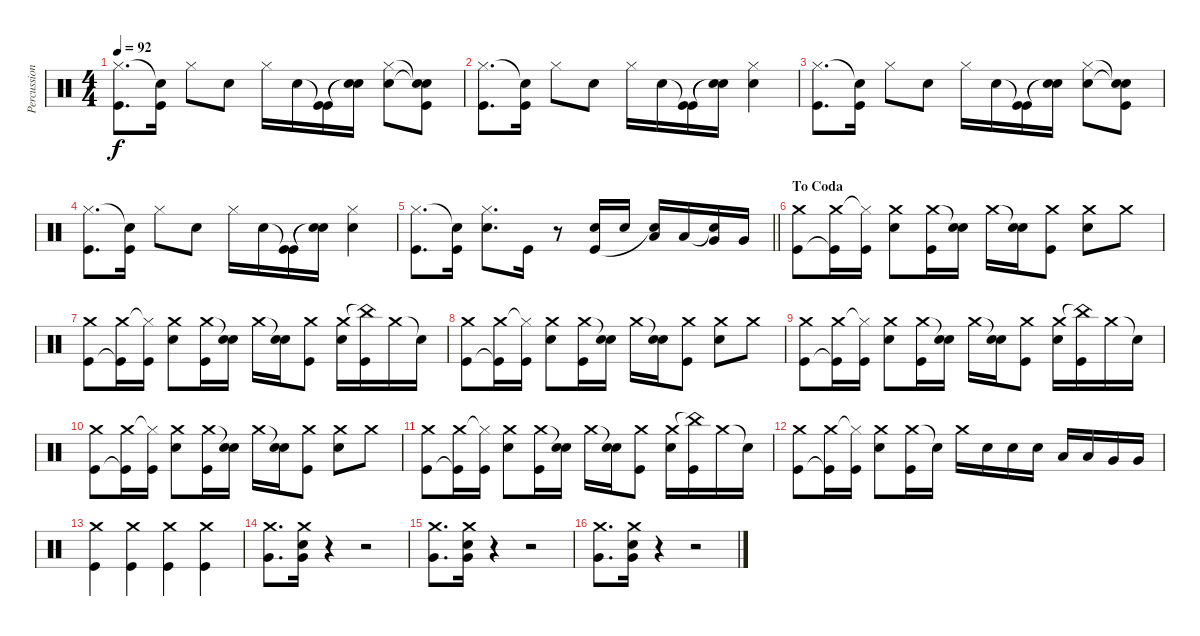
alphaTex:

\track ("Percussion" "Percussion") {instrument percussion}
\staff {score}
\articulation defaults
\ts (4 4)
\tempo 92
\clef neutral
\ks c
("Hi-Hat (closed)" "Kick (hit)").8{d dy f} ("Snare (hit)"{t} "Kick (hit)").16 "Hi-Hat (closed)".8 "Electric Snare (hit)".8 "Hi-Hat (closed)".16 "Electric Snare (hit)".16 ("Kick (hit)"{t} "Kick (hit)").16 ("Snare (hit)"{t} "Snare (hit)"{t}).16 ("Hi-Hat (closed)" "Electric Snare (hit)").8 ("Snare (hit)"{t} "Snare (hit)"{t} "Kick (hit)").8 |
("Hi-Hat (closed)" "Kick (hit)").8{d} ("Snare (hit)"{t} "Kick (hit)").16 "Hi-Hat (closed)".8 "Electric Snare (hit)".8 "Hi-Hat (closed)".16 "Electric Snare (hit)".16 ("Kick (hit)"{t} "Kick (hit)").16 ("Snare (hit)"{t} "Snare (hit)"{t}).16 ("Hi-Hat (closed)" "Electric Snare (hit)").4 |
("Hi-Hat (closed)" "Kick (hit)").8{d} ("Snare (hit)"{t} "Kick (hit)").16 "Hi-Hat (closed)".8 "Electric Snare (hit)".8 "Hi-Hat (closed)".16 "Electric Snare (hit)".16 ("Kick (hit)"{t} "Kick (hit)").16 ("Snare (hit)"{t} "Snare (hit)"{t}).16 ("Hi-Hat (closed)" "Electric Snare (hit)").8 ("Snare (hit)"{t} "Snare (hit)"{t} "Kick (hit)").8 |
("Hi-Hat (closed)" "Kick (hit)").8{d} ("Snare (hit)"{t} "Kick (hit)").16 "Hi-Hat (closed)".8 "Electric Snare (hit)".8 "Hi-Hat (closed)".16 "Electric Snare (hit)".16 ("Kick (hit)"{t} "Kick (hit)").16 ("Snare (hit)"{t} "Snare (hit)"{t}).16 ("Hi-Hat (closed)" "Electric Snare (hit)").4 |
\barLineRight lightlight
("Hi-Hat (closed)" "Kick (hit)").8{d} ("Snare (hit)"{t} "Kick (hit)").16 ("Hi-Hat (closed)" "Electric Snare (hit)").8{d} "Kick (hit)".16 r.8 ("Electric Snare (hit)" "Kick (hit)").16 "Electric Snare (hit)".16 ("Low Tom (hit)" "Snare (hit)"{t}).16 "Low Tom (hit)".16 ("Snare (hit)"{t} "Very Low Tom (hit)").16 "Very Low Tom (hit)".16 |
\section ("" "To Coda")
("Crash medium (hit)" "Kick (hit)").8 ("Crash medium (hit)" "Kick (hit)"{t}).16 ("Hi-Hat (closed)"{t} "Kick (hit)").16 ("Crash medium (hit)" "Electric Snare (hit)").8 ("Crash medium (hit)" "Kick (hit)").16 ("Snare (hit)"{t} "Electric Snare (hit)").16 "Crash medium (hit)".16 ("Snare (hit)"{t} "Electric Snare (hit)").16 ("Crash medium (hit)" "Kick (hit)").8 ("Crash medium (hit)" "Electric Snare (hit)").8 "Crash medium (hit)".8 |
("Crash medium (hit)" "Kick (hit)").8 ("Crash medium (hit)" "Kick (hit)"{t}).16 ("Hi-Hat (closed)"{t} "Kick (hit)").16 ("Crash medium (hit)" "Electric Snare (hit)").8 ("Crash medium (hit)" "Kick (hit)").16 ("Snare (hit)"{t} "Electric Snare (hit)").16 "Crash medium (hit)".16 ("Snare (hit)"{t} "Electric Snare (hit)").16 ("Crash medium (hit)" "Kick (hit)").8 ("Crash medium (hit)" "Electric Snare (hit)").16 ("China (hit)"{t} "Kick (hit)").16 "Crash medium (hit)".16 "Snare (hit)"{t}.16 |
("Crash medium (hit)" "Kick (hit)").8 ("Crash medium (hit)" "Kick (hit)"{t}).16 ("Hi-Hat (closed)"{t} "Kick (hit)").16 ("Crash medium (hit)" "Electric Snare (hit)").8 ("Crash medium (hit)" "Kick (hit)").16 ("Snare (hit)"{t} "Electric Snare (hit)").16 "Crash medium (hit)".16 ("Snare (hit)"{t} "Electric Snare (hit)").16 ("Crash medium (hit)" "Kick (hit)").8 ("Crash medium (hit)" "Electric Snare (hit)").8 "Crash medium (hit)".8 |
("Crash medium (hit)" "Kick (hit)").8 ("Crash medium (hit)" "Kick (hit)"{t}).16 ("Hi-Hat (closed)"{t} "Kick (hit)").16 ("Crash medium (hit)" "Electric Snare (hit)").8 ("Crash medium (hit)" "Kick (hit)").16 ("Snare (hit)"{t} "Electric Snare (hit)").16 "Crash medium (hit)".16 ("Snare (hit)"{t} "Electric Snare (hit)").16 ("Crash medium (hit)" "Kick (hit)").8 ("Crash medium (hit)" "Electric Snare (hit)").16 ("China (hit)"{t} "Kick (hit)").16 "Crash medium (hit)".16 "Snare (hit)"{t}.16 |
("Crash medium (hit)" "Kick (hit)").8 ("Crash medium (hit)" "Kick (hit)"{t}).16 ("Hi-Hat (closed)"{t} "Kick (hit)").16 ("Crash medium (hit)" "Electric Snare (hit)").8 ("Crash medium (hit)" "Kick (hit)").16 ("Snare (hit)"{t} "Electric Snare (hit)").16 "Crash medium (hit)".16 ("Snare (hit)"{t} "Electric Snare (hit)").16 ("Crash medium (hit)" "Kick (hit)").8 ("Crash medium (hit)" "Electric Snare (hit)").8 "Crash medium (hit)".8 |
("Crash medium (hit)" "Kick (hit)").8 ("Crash medium (hit)" "Kick (hit)"{t}).16 ("Hi-Hat (closed)"{t} "Kick (hit)").16 ("Crash medium (hit)" "Electric Snare (hit)").8 ("Crash medium (hit)" "Kick (hit)").16 ("Snare (hit)"{t} "Electric Snare (hit)").16 "Crash medium (hit)".16 ("Snare (hit)"{t} "Electric Snare (hit)").16 ("Crash medium (hit)" "Kick (hit)").8 ("Crash medium (hit)" "Electric Snare (hit)").16 ("China (hit)"{t} "Kick (hit)").16 "Crash medium (hit)".16 "Snare (hit)"{t}.16 |
("Crash medium (hit)" "Kick (hit)").8 ("Crash medium (hit)" "Kick (hit)"{t}).16 ("Hi-Hat (closed)"{t} "Kick (hit)").16 ("Crash medium (hit)" "Electric Snare (hit)").8 ("Crash medium (hit)" "Kick (hit)").16 "Snare (hit)"{t}.16 "Crash medium (hit)".16 "Electric Snare (hit)".16 "Electric Snare (hit)".16 "Electric Snare (hit)".16 "Low Tom (hit)".16 "Low Tom (hit)".16 "Very Low Tom (hit)".16 "Very Low Tom (hit)".16 |
("Crash medium (hit)" "Kick (hit)").4 ("Crash medium (hit)" "Kick (hit)").4 ("Crash medium (hit)" "Kick (hit)").4 ("Crash medium (hit)" "Kick (hit)").4 |
("Crash medium (hit)" "Very Low Tom (hit)").8{d} ("Crash medium (hit)" "Electric Snare (hit)" "Very Low Tom (hit)").16 r.4 r.2 |
("Crash medium (hit)" "Very Low Tom (hit)").8{d} ("Crash medium (hit)" "Electric Snare (hit)" "Very Low Tom (hit)").16 r.4 r.2 |
("Crash medium (hit)" "Very Low Tom (hit)").8{d} ("Crash medium (hit)" "Electric Snare (hit)" "Very Low Tom (hit)").16 r.4 r.2
